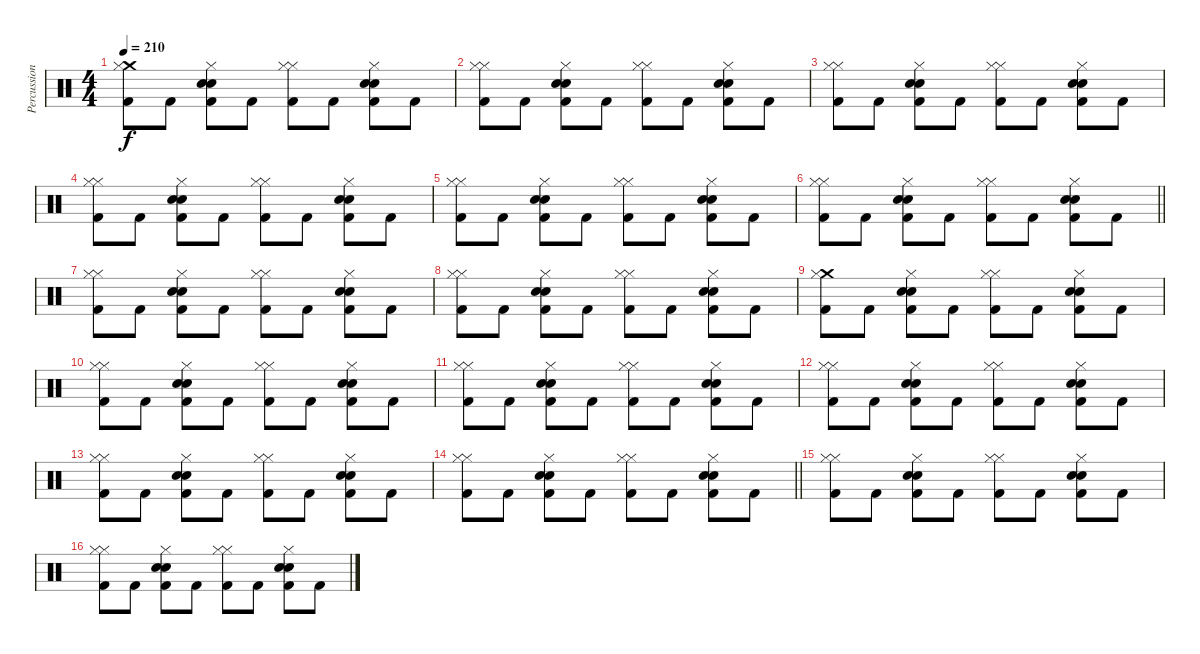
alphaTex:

\track ("Percussion" "Percussion") {instrument percussion}
\staff {score}
\articulation defaults
\ts (4 4)
\tempo 210
\clef neutral
\ks c
("Crash medium (hit)" "Hi-Hat (closed)" "Kick (hit) 2").8{dy f} "Kick (hit) 2".8 ("Hi-Hat (closed)" "Snare (hit) 2" "Electric Snare (hit)" "Kick (hit) 2").8 "Kick (hit) 2".8 ("Hi-Hat (closed)" "Hi-Hat (closed)" "Kick (hit) 2").8 "Kick (hit) 2".8 ("Hi-Hat (closed)" "Snare (hit) 2" "Electric Snare (hit)" "Kick (hit) 2").8 "Kick (hit) 2".8 |
("Hi-Hat (closed)" "Hi-Hat (closed)" "Kick (hit) 2").8 "Kick (hit) 2".8 ("Hi-Hat (closed)" "Snare (hit) 2" "Electric Snare (hit)" "Kick (hit) 2").8 "Kick (hit) 2".8 ("Hi-Hat (closed)" "Hi-Hat (closed)" "Kick (hit) 2").8 "Kick (hit) 2".8 ("Hi-Hat (closed)" "Snare (hit) 2" "Electric Snare (hit)" "Kick (hit) 2").8 "Kick (hit) 2".8 |
("Hi-Hat (closed)" "Hi-Hat (closed)" "Kick (hit) 2").8 "Kick (hit) 2".8 ("Hi-Hat (closed)" "Snare (hit) 2" "Electric Snare (hit)" "Kick (hit) 2").8 "Kick (hit) 2".8 ("Hi-Hat (closed)" "Hi-Hat (closed)" "Kick (hit) 2").8 "Kick (hit) 2".8 ("Hi-Hat (closed)" "Snare (hit) 2" "Electric Snare (hit)" "Kick (hit) 2").8 "Kick (hit) 2".8 |
("Hi-Hat (closed)" "Hi-Hat (closed)" "Kick (hit) 2").8 "Kick (hit) 2".8 ("Hi-Hat (closed)" "Snare (hit) 2" "Electric Snare (hit)" "Kick (hit) 2").8 "Kick (hit) 2".8 ("Hi-Hat (closed)" "Hi-Hat (closed)" "Kick (hit) 2").8 "Kick (hit) 2".8 ("Hi-Hat (closed)" "Snare (hit) 2" "Electric Snare (hit)" "Kick (hit) 2").8 "Kick (hit) 2".8 |
("Hi-Hat (closed)" "Hi-Hat (closed)" "Kick (hit) 2").8 "Kick (hit) 2".8 ("Hi-Hat (closed)" "Snare (hit) 2" "Electric Snare (hit)" "Kick (hit) 2").8 "Kick (hit) 2".8 ("Hi-Hat (closed)" "Hi-Hat (closed)" "Kick (hit) 2").8 "Kick (hit) 2".8 ("Hi-Hat (closed)" "Snare (hit) 2" "Electric Snare (hit)" "Kick (hit) 2").8 "Kick (hit) 2".8 |
\barLineRight lightlight
("Hi-Hat (closed)" "Hi-Hat (closed)" "Kick (hit) 2").8 "Kick (hit) 2".8 ("Hi-Hat (closed)" "Snare (hit) 2" "Electric Snare (hit)" "Kick (hit) 2").8 "Kick (hit) 2".8 ("Hi-Hat (closed)" "Hi-Hat (closed)" "Kick (hit) 2").8 "Kick (hit) 2".8 ("Hi-Hat (closed)" "Snare (hit) 2" "Electric Snare (hit)" "Kick (hit) 2").8 "Kick (hit) 2".8 |
("Hi-Hat (closed)" "Hi-Hat (closed)" "Kick (hit) 2").8 "Kick (hit) 2".8 ("Hi-Hat (closed)" "Snare (hit) 2" "Electric Snare (hit)" "Kick (hit) 2").8 "Kick (hit) 2".8 ("Hi-Hat (closed)" "Hi-Hat (closed)" "Kick (hit) 2").8 "Kick (hit) 2".8 ("Hi-Hat (closed)" "Snare (hit) 2" "Electric Snare (hit)" "Kick (hit) 2").8 "Kick (hit) 2".8 |
("Hi-Hat (closed)" "Hi-Hat (closed)" "Kick (hit) 2").8 "Kick (hit) 2".8 ("Hi-Hat (closed)" "Snare (hit) 2" "Electric Snare (hit)" "Kick (hit) 2").8 "Kick (hit) 2".8 ("Hi-Hat (closed)" "Hi-Hat (closed)" "Kick (hit) 2").8 "Kick (hit) 2".8 ("Hi-Hat (closed)" "Snare (hit) 2" "Electric Snare (hit)" "Kick (hit) 2").8 "Kick (hit) 2".8 |
("Crash medium (hit)" "Hi-Hat (closed)" "Kick (hit) 2").8 "Kick (hit) 2".8 ("Hi-Hat (closed)" "Snare (hit) 2" "Electric Snare (hit)" "Kick (hit) 2").8 "Kick (hit) 2".8 ("Hi-Hat (closed)" "Hi-Hat (closed)" "Kick (hit) 2").8 "Kick (hit) 2".8 ("Hi-Hat (closed)" "Snare (hit) 2" "Electric Snare (hit)" "Kick (hit) 2").8 "Kick (hit) 2".8 |
("Hi-Hat (closed)" "Hi-Hat (closed)" "Kick (hit) 2").8 "Kick (hit) 2".8 ("Hi-Hat (closed)" "Snare (hit) 2" "Electric Snare (hit)" "Kick (hit) 2").8 "Kick (hit) 2".8 ("Hi-Hat (closed)" "Hi-Hat (closed)" "Kick (hit) 2").8 "Kick (hit) 2".8 ("Hi-Hat (closed)" "Snare (hit) 2" "Electric Snare (hit)" "Kick (hit) 2").8 "Kick (hit) 2".8 |
("Hi-Hat (closed)" "Hi-Hat (closed)" "Kick (hit) 2").8 "Kick (hit) 2".8 ("Hi-Hat (closed)" "Snare (hit) 2" "Electric Snare (hit)" "Kick (hit) 2").8 "Kick (hit) 2".8 ("Hi-Hat (closed)" "Hi-Hat (closed)" "Kick (hit) 2").8 "Kick (hit) 2".8 ("Hi-Hat (closed)" "Snare (hit) 2" "Electric Snare (hit)" "Kick (hit) 2").8 "Kick (hit) 2".8 |
("Hi-Hat (closed)" "Hi-Hat (closed)" "Kick (hit) 2").8 "Kick (hit) 2".8 ("Hi-Hat (closed)" "Snare (hit) 2" "Electric Snare (hit)" "Kick (hit) 2").8 "Kick (hit) 2".8 ("Hi-Hat (closed)" "Hi-Hat (closed)" "Kick (hit) 2").8 "Kick (hit) 2".8 ("Hi-Hat (closed)" "Snare (hit) 2" "Electric Snare (hit)" "Kick (hit) 2").8 "Kick (hit) 2".8 |
("Hi-Hat (closed)" "Hi-Hat (closed)" "Kick (hit) 2").8 "Kick (hit) 2".8 ("Hi-Hat (closed)" "Snare (hit) 2" "Electric Snare (hit)" "Kick (hit) 2").8 "Kick (hit) 2".8 ("Hi-Hat (closed)" "Hi-Hat (closed)" "Kick (hit) 2").8 "Kick (hit) 2".8 ("Hi-Hat (closed)" "Snare (hit) 2" "Electric Snare (hit)" "Kick (hit) 2").8 "Kick (hit) 2".8 |
\barLineRight lightlight
("Hi-Hat (closed)" "Hi-Hat (closed)" "Kick (hit) 2").8 "Kick (hit) 2".8 ("Hi-Hat (closed)" "Snare (hit) 2" "Electric Snare (hit)" "Kick (hit) 2").8 "Kick (hit) 2".8 ("Hi-Hat (closed)" "Hi-Hat (closed)" "Kick (hit) 2").8 "Kick (hit) 2".8 ("Hi-Hat (closed)" "Snare (hit) 2" "Electric Snare (hit)" "Kick (hit) 2").8 "Kick (hit) 2".8 |
("Hi-Hat (closed)" "Hi-Hat (closed)" "Kick (hit) 2").8 "Kick (hit) 2".8 ("Hi-Hat (closed)" "Snare (hit) 2" "Electric Snare (hit)" "Kick (hit) 2").8 "Kick (hit) 2".8 ("Hi-Hat (closed)" "Hi-Hat (closed)" "Kick (hit) 2").8 "Kick (hit) 2".8 ("Hi-Hat (closed)" "Snare (hit) 2" "Electric Snare (hit)" "Kick (hit) 2").8 "Kick (hit) 2".8 |
("Hi-Hat (closed)" "Hi-Hat (closed)" "Kick (hit) 2").8 "Kick (hit) 2".8 ("Hi-Hat (closed)" "Snare (hit) 2" "Electric Snare (hit)" "Kick (hit) 2").8 "Kick (hit) 2".8 ("Hi-Hat (closed)" "Hi-Hat (closed)" "Kick (hit) 2").8 "Kick (hit) 2".8 ("Hi-Hat (closed)" "Snare (hit) 2" "Electric Snare (hit)" "Kick (hit) 2").8 "Kick (hit) 2".8
